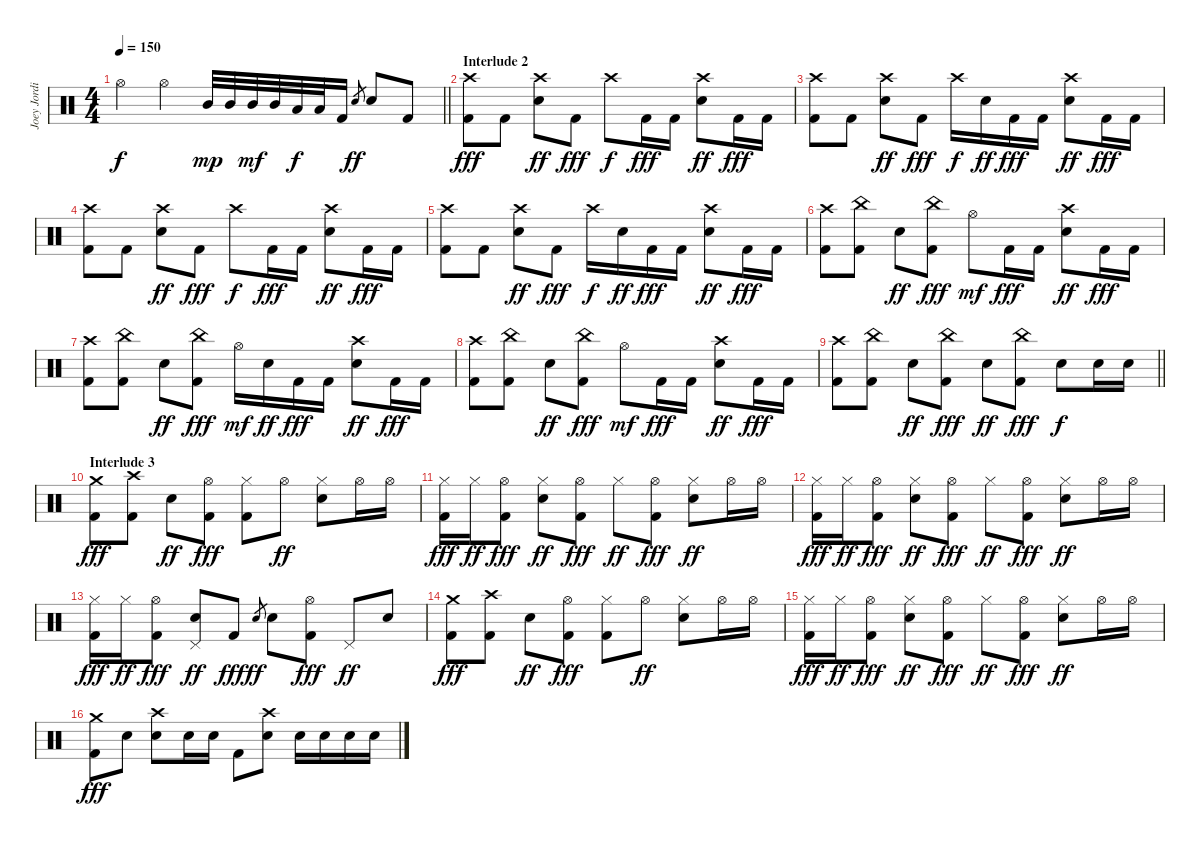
\track ("Joey Jordison" "Joey Jordi") {instrument percussion}
\staff {score}
\articulation defaults
\ts (4 4)
\tempo 150
\clef neutral
\barLineRight lightlight
\ks c "Hi-Hat (open)".4{dy f} "Hi-Hat (open)".4 "Mid Tom (hit)".32{dy mp} "Mid Tom (hit)".32 "Mid Tom (hit)".32{dy mf} "Mid Tom (hit)".32 "Low Tom (hit)".32{dy f} "Low Tom (hit)".32 "Kick (hit) 2".16 "Electric Snare (hit)".8{gr dy ff} "Electric Snare (hit)".8 "Kick (hit) 2".8
|
\section ("" "Interlude 2")
("Crash high (hit)" "Kick (hit) 2").8{dy fff} "Kick (hit) 2".8 ("Crash high (hit)" "Electric Snare (hit)").8{dy ff} "Kick (hit) 2".8{dy fff} "Crash high (hit)".8{dy f} "Kick (hit) 2".16{dy fff} "Kick (hit) 2".16 ("Crash high (hit)" "Electric Snare (hit)").8{dy ff} "Kick (hit) 2".16{dy fff} "Kick (hit) 2".16 |
("Crash high (hit)" "Kick (hit) 2").8 "Kick (hit) 2".8 ("Crash high (hit)" "Electric Snare (hit)").8{dy ff} "Kick (hit) 2".8{dy fff} "Crash high (hit)".16{dy f} "Electric Snare (hit)".16{dy ff} "Kick (hit) 2".16{dy fff} "Kick (hit) 2".16 ("Crash high (hit)" "Electric Snare (hit)").8{dy ff} "Kick (hit) 2".16{dy fff} "Kick (hit) 2".16 |
("Crash high (hit)" "Kick (hit) 2").8 "Kick (hit) 2".8 ("Crash high (hit)" "Electric Snare (hit)").8{dy ff} "Kick (hit) 2".8{dy fff} "Crash high (hit)".8{dy f} "Kick (hit) 2".16{dy fff} "Kick (hit) 2".16 ("Crash high (hit)" "Electric Snare (hit)").8{dy ff} "Kick (hit) 2".16{dy fff} "Kick (hit) 2".16 |
("Crash high (hit)" "Kick (hit) 2").8 "Kick (hit) 2".8 ("Crash high (hit)" "Electric Snare (hit)").8{dy ff} "Kick (hit) 2".8{dy fff} "Crash high (hit)".16{dy f} "Electric Snare (hit)".16{dy ff} "Kick (hit) 2".16{dy fff} "Kick (hit) 2".16 ("Crash high (hit)" "Electric Snare (hit)").8{dy ff} "Kick (hit) 2".16{dy fff} "Kick (hit) 2".16 |
("Crash high (hit)" "Kick (hit) 2").8 ("China (hit)" "Kick (hit) 2").8 "Electric Snare (hit)".8{dy ff} ("China (hit)" "Kick (hit) 2").8{dy fff} "Hi-Hat (open)".8{dy mf} "Kick (hit) 2".16{dy fff} "Kick (hit) 2".16 ("Crash high (hit)" "Electric Snare (hit)").8{dy ff} "Kick (hit) 2".16{dy fff} "Kick (hit) 2".16 |
("Crash high (hit)" "Kick (hit) 2").8 ("China (hit)" "Kick (hit) 2").8 "Electric Snare (hit)".8{dy ff} ("China (hit)" "Kick (hit) 2").8{dy fff} "Hi-Hat (open)".16{dy mf} "Electric Snare (hit)".16{dy ff} "Kick (hit) 2".16{dy fff} "Kick (hit) 2".16 ("Crash high (hit)" "Electric Snare (hit)").8{dy ff} "Kick (hit) 2".16{dy fff} "Kick (hit) 2".16 |
("Crash high (hit)" "Kick (hit) 2").8 ("China (hit)" "Kick (hit) 2").8 "Electric Snare (hit)".8{dy ff} ("China (hit)" "Kick (hit) 2").8{dy fff} "Hi-Hat (open)".8{dy mf} "Kick (hit) 2".16{dy fff} "Kick (hit) 2".16 ("Crash high (hit)" "Electric Snare (hit)").8{dy ff} "Kick (hit) 2".16{dy fff} "Kick (hit) 2".16 |
\barLineRight lightlight
("Crash high (hit)" "Kick (hit) 2").8 ("China (hit)" "Kick (hit) 2").8 "Electric Snare (hit)".8{dy ff} ("China (hit)" "Kick (hit) 2").8{dy fff} "Electric Snare (hit)".8{dy ff} ("China (hit)" "Kick (hit) 2").8{dy fff} "Electric Snare (hit)".8{dy f} "Electric Snare (hit)".16 "Electric Snare (hit)".16 |
\section ("" "Interlude 3")
("Crash medium (hit)" "Kick (hit) 2").8{dy fff} ("Crash high (hit)" "Kick (hit) 2").8 "Electric Snare (hit)".8{dy ff} ("Hi-Hat (open)" "Kick (hit) 2").8{dy fff} ("Hi-Hat (closed)" "Kick (hit) 2").8 "Hi-Hat (open)".8{dy ff} ("Hi-Hat (closed)" "Electric Snare (hit)").8 "Hi-Hat (open)".16 "Hi-Hat (open)".16 |
("Hi-Hat (closed)" "Kick (hit) 2").16{dy fff} "Hi-Hat (closed)".16{dy ff} ("Hi-Hat (open)" "Kick (hit) 2").8{dy fff} ("Hi-Hat (closed)" "Electric Snare (hit)").8{dy ff} ("Hi-Hat (open)" "Kick (hit) 2").8{dy fff} "Hi-Hat (closed)".8{dy ff} ("Hi-Hat (open)" "Kick (hit) 2").8{dy fff} ("Hi-Hat (closed)" "Electric Snare (hit)").8{dy ff} "Hi-Hat (open)".16 "Hi-Hat (open)".16 |
("Hi-Hat (closed)" "Kick (hit) 2").16{dy fff} "Hi-Hat (closed)".16{dy ff} ("Hi-Hat (open)" "Kick (hit) 2").8{dy fff} ("Hi-Hat (closed)" "Electric Snare (hit)").8{dy ff} ("Hi-Hat (open)" "Kick (hit) 2").8{dy fff} "Hi-Hat (closed)".8{dy ff} ("Hi-Hat (open)" "Kick (hit) 2").8{dy fff} ("Hi-Hat (closed)" "Electric Snare (hit)").8{dy ff} "Hi-Hat (open)".16 "Hi-Hat (open)".16 |
("Hi-Hat (closed)" "Kick (hit) 2").16{dy fff} "Hi-Hat (closed)".16{dy ff} ("Hi-Hat (open)" "Kick (hit) 2").8{dy fff} ("Electric Snare (hit)" "Pedal Hi-Hat (hit)").8{dy ff} "Kick (hit) 2".8{dy fff} "Electric Snare (hit)".8{gr dy ff} "Electric Snare (hit)".8 ("Hi-Hat (open)" "Kick (hit) 2").8{dy fff} "Pedal Hi-Hat (hit)".8{dy ff} "Electric Snare (hit)".8 |
("Crash medium (hit)" "Kick (hit) 2").8{dy fff} ("Crash high (hit)" "Kick (hit) 2").8 "Electric Snare (hit)".8{dy ff} ("Hi-Hat (open)" "Kick (hit) 2").8{dy fff} ("Hi-Hat (closed)" "Kick (hit) 2").8 "Hi-Hat (open)".8{dy ff} ("Hi-Hat (closed)" "Electric Snare (hit)").8 "Hi-Hat (open)".16 "Hi-Hat (open)".16 |
("Hi-Hat (closed)" "Kick (hit) 2").16{dy fff} "Hi-Hat (closed)".16{dy ff} ("Hi-Hat (open)" "Kick (hit) 2").8{dy fff} ("Hi-Hat (closed)" "Electric Snare (hit)").8{dy ff} ("Hi-Hat (open)" "Kick (hit) 2").8{dy fff} "Hi-Hat (closed)".8{dy ff} ("Hi-Hat (open)" "Kick (hit) 2").8{dy fff} ("Hi-Hat (closed)" "Electric Snare (hit)").8{dy ff} "Hi-Hat (open)".16 "Hi-Hat (open)".16 |
("Crash medium (hit)" "Kick (hit) 2").8{dy fff} "Electric Snare (hit)".8 ("Crash high (hit)" "Electric Snare (hit)").8 "Electric Snare (hit)".16 "Electric Snare (hit)".16 "Kick (hit) 2".8 ("Crash high (hit)" "Electric Snare (hit)").8 "Electric Snare (hit)".16 "Electric Snare (hit)".16 "Electric Snare (hit)".16 "Electric Snare (hit)".16
